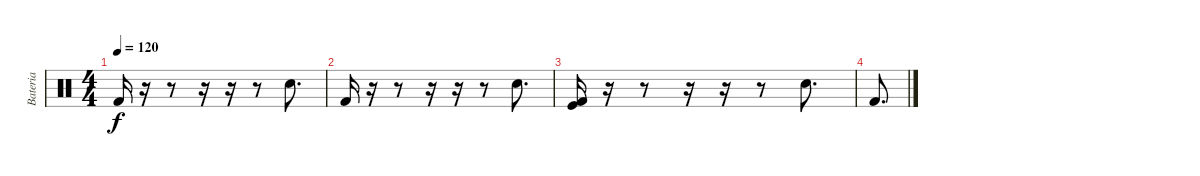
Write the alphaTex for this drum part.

\track ("Bateria" "Bateria") {instrument percussion bank 127}
\staff {score}
\articulation defaults
\ts (4 4)
\tempo 120
\clef neutral
\ks c "Kick (hit) 2".16{dy f}
r.16 r.8 r.16 r.16 r.8 "Snare (hit) 2".8{d} |
"Kick (hit) 2".16 r.16 r.8 r.16 r.16 r.8 "Snare (hit) 2".8{d} |
("Kick (hit)" "Kick (hit) 2").16 r.16 r.8 r.16 r.16 r.8 "Snare (hit) 2".8{d} |
"Kick (hit) 2".8{d}
